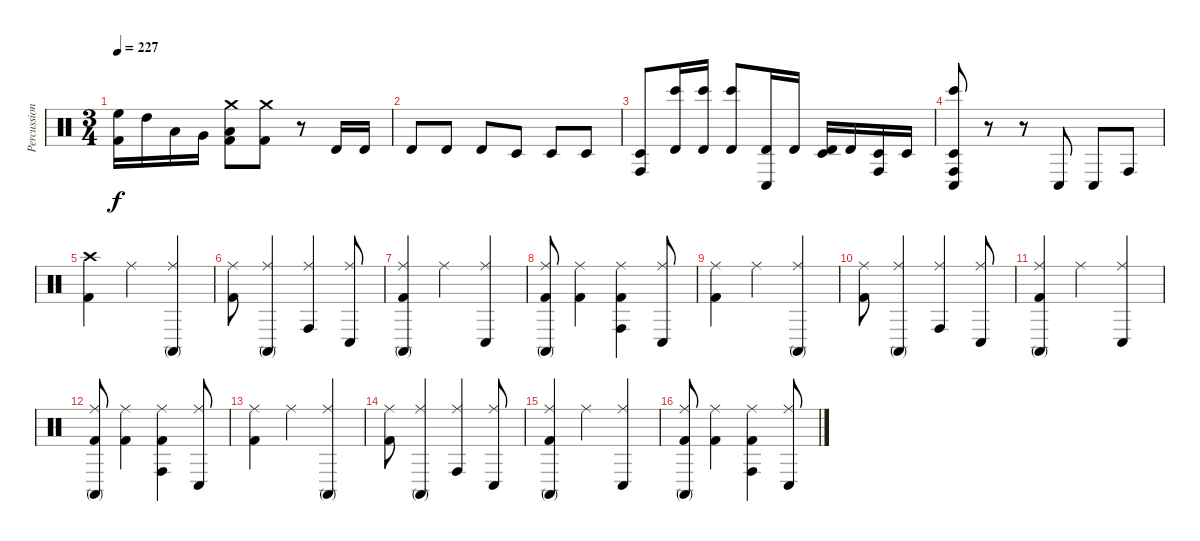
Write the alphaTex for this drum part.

\track ("Percussion" "Percussion") {instrument percussion}
\staff {score}
\articulation defaults
\ts (3 4)
\tempo 227
\clef neutral
\ks c
("High Floor Tom (hit)" "Kick (hit) 2").16{dy f} "High Tom (hit)".16 "Low Tom (hit)".16 "Very Low Tom (hit)".16 ("Crash medium (hit)" "Low Floor Tom (hit)" "Kick (hit) 2").8 ("Crash medium (hit)" "Kick (hit) 2").8 r.8 "Timbale high (hit)".16 "Timbale high (hit)".16 |
"Timbale high (hit)".8 "Timbale high (hit)".8 "Timbale high (hit)".8 "Timbale low (hit)".8 "Timbale low (hit)".8 "Timbale low (hit)".8 |
("Timbale low (hit)" "Conga high (hit)").8 ("Bongo High (hit)" "Timbale high (hit)").16 ("Bongo High (hit)" "Timbale high (hit)").16 ("Bongo High (hit)" "Timbale high (hit)").8 ("Timbale high (hit)" "Conga low (hit)").16 "Timbale high (hit)".16 ("Timbale high (hit)" "Timbale low (hit)").16 "Timbale high (hit)".16 ("Timbale low (hit)" "Conga high (hit)").16 "Timbale low (hit)".16 |
("Bongo High (hit)" "Timbale low (hit)" "Conga high (hit)" "Conga low (hit)").8 r.8 r.8 "Conga low (hit)".8 "Conga low (hit)".8 "Conga high (hit)".8 |
("Crash high (hit)" "Kick (hit) 2").4 "Ride (middle)".4 ("Ride (middle)" "Conga high (mute)").4 |
("Ride (middle)" "Kick (hit) 2").8 ("Ride (middle)" "Conga high (mute)").4 ("Ride (middle)" "Conga high (hit)").4 ("Ride (middle)" "Conga low (hit)").8 |
("Ride (middle)" "Conga high (mute)" "Kick (hit) 2").4 "Ride (middle)".4 ("Ride (middle)" "Conga low (hit)").4 |
("Ride (middle)" "Conga high (mute)" "Kick (hit) 2").8 ("Ride (middle)" "Kick (hit) 2").4 ("Ride (middle)" "Conga high (hit)" "Kick (hit) 2").4 ("Ride (middle)" "Conga low (hit)").8 |
("Ride (middle)" "Kick (hit) 2").4 "Ride (middle)".4 ("Ride (middle)" "Conga high (mute)").4 |
("Ride (middle)" "Kick (hit) 2").8 ("Ride (middle)" "Conga high (mute)").4 ("Ride (middle)" "Conga high (hit)").4 ("Ride (middle)" "Conga low (hit)").8 |
("Ride (middle)" "Conga high (mute)" "Kick (hit) 2").4 "Ride (middle)".4 ("Ride (middle)" "Conga low (hit)").4 |
("Ride (middle)" "Conga high (mute)" "Kick (hit) 2").8 ("Ride (middle)" "Kick (hit) 2").4 ("Ride (middle)" "Conga high (hit)" "Kick (hit) 2").4 ("Ride (middle)" "Conga low (hit)").8 |
("Ride (middle)" "Kick (hit) 2").4 "Ride (middle)".4 ("Ride (middle)" "Conga high (mute)").4 |
("Ride (middle)" "Kick (hit) 2").8 ("Ride (middle)" "Conga high (mute)").4 ("Ride (middle)" "Conga high (hit)").4 ("Ride (middle)" "Conga low (hit)").8 |
("Ride (middle)" "Conga high (mute)" "Kick (hit) 2").4 "Ride (middle)".4 ("Ride (middle)" "Conga low (hit)").4 |
("Ride (middle)" "Conga high (mute)" "Kick (hit) 2").8 ("Ride (middle)" "Kick (hit) 2").4 ("Ride (middle)" "Conga high (hit)" "Kick (hit) 2").4 ("Ride (middle)" "Conga low (hit)").8
